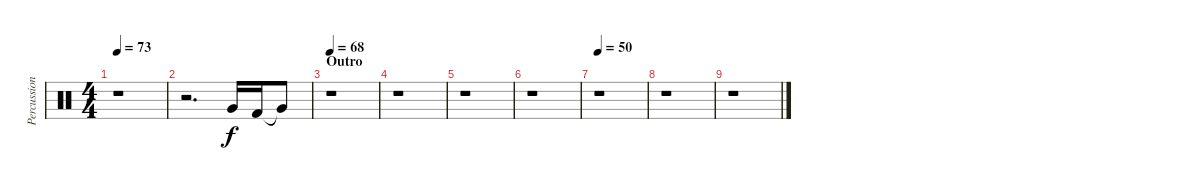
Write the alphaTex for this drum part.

\track ("Percussions" "Percussion") {instrument percussion}
\staff {score}
\articulation defaults
\ts (4 4)
\tempo 73
\clef neutral
\ks c
r.1{dy p} |
r.2{d} "Very Low Tom (hit)".16{dy f} "Kick (hit) 2".16 "Very Low Tom (hit)"{t}.8 |
\section ("" "Outro")
\tempo 68
r.1 |
r.1 |
r.1 |
r.1 |
\tempo 50
r.1 |
r.1 |
r.1
